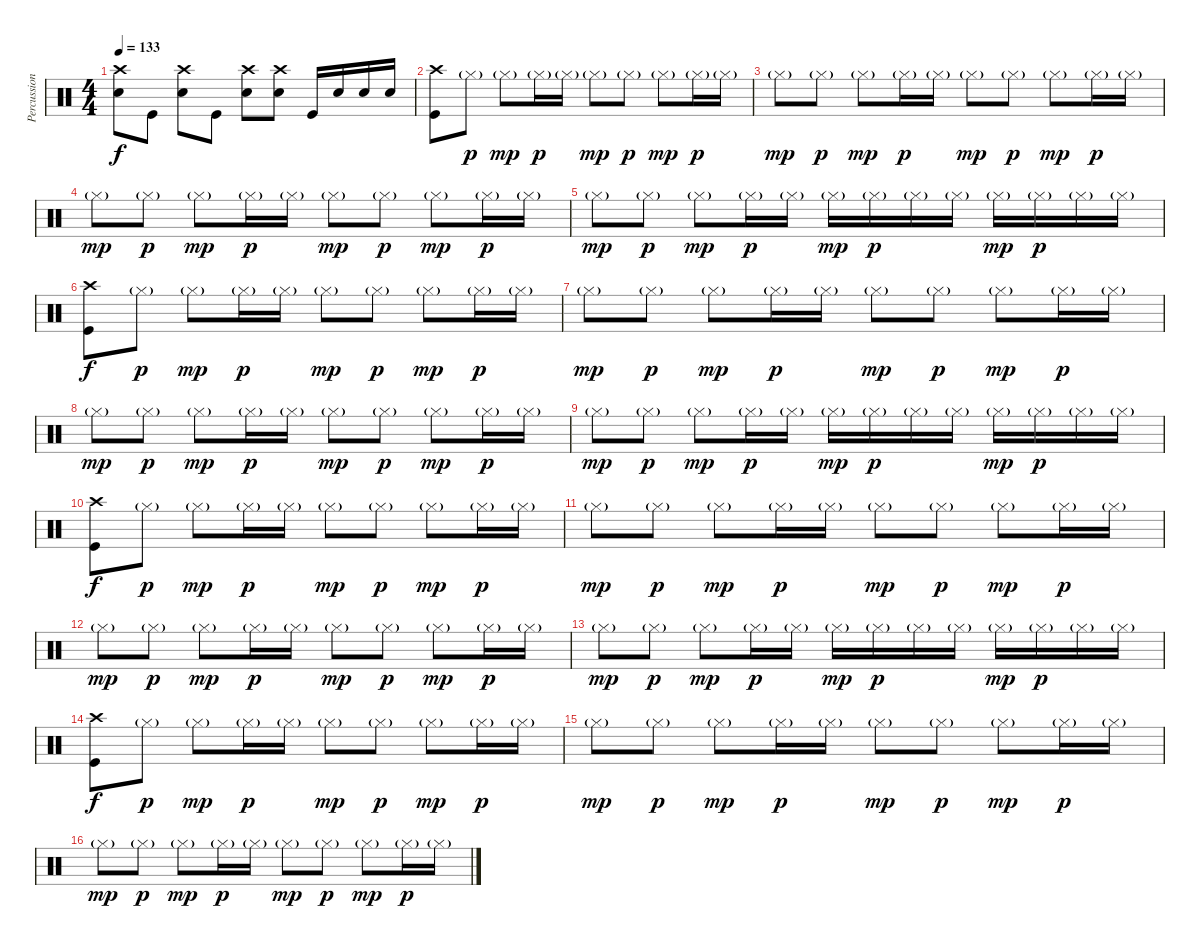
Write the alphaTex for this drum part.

\track ("Percussion" "Percussion") {instrument percussion}
\staff {score}
\articulation defaults
\ts (4 4)
\tempo 133
\clef neutral
\ks c
("Crash high (hit)" "Electric Snare (hit)").8{dy f} "Kick (hit)".8 ("Crash high (hit)" "Electric Snare (hit)").8 "Kick (hit)".8 ("Crash high (hit)" "Electric Snare (hit)").8 ("Crash high (hit)" "Electric Snare (hit)").8 "Kick (hit)".16 "Electric Snare (hit)".16 "Electric Snare (hit)".16 "Electric Snare (hit)".16 |
("Crash high (hit)" "Kick (hit)").8 "Hi-Hat (closed)"{g}.8{dy p} "Hi-Hat (closed)"{g}.8{dy mp} "Hi-Hat (closed)"{g}.16{dy p} "Hi-Hat (closed)"{g}.16 "Hi-Hat (closed)"{g}.8{dy mp} "Hi-Hat (closed)"{g}.8{dy p} "Hi-Hat (closed)"{g}.8{dy mp} "Hi-Hat (closed)"{g}.16{dy p} "Hi-Hat (closed)"{g}.16 |
"Hi-Hat (closed)"{g}.8{dy mp} "Hi-Hat (closed)"{g}.8{dy p} "Hi-Hat (closed)"{g}.8{dy mp} "Hi-Hat (closed)"{g}.16{dy p} "Hi-Hat (closed)"{g}.16 "Hi-Hat (closed)"{g}.8{dy mp} "Hi-Hat (closed)"{g}.8{dy p} "Hi-Hat (closed)"{g}.8{dy mp} "Hi-Hat (closed)"{g}.16{dy p} "Hi-Hat (closed)"{g}.16 |
"Hi-Hat (closed)"{g}.8{dy mp} "Hi-Hat (closed)"{g}.8{dy p} "Hi-Hat (closed)"{g}.8{dy mp} "Hi-Hat (closed)"{g}.16{dy p} "Hi-Hat (closed)"{g}.16 "Hi-Hat (closed)"{g}.8{dy mp} "Hi-Hat (closed)"{g}.8{dy p} "Hi-Hat (closed)"{g}.8{dy mp} "Hi-Hat (closed)"{g}.16{dy p} "Hi-Hat (closed)"{g}.16 |
"Hi-Hat (closed)"{g}.8{dy mp} "Hi-Hat (closed)"{g}.8{dy p} "Hi-Hat (closed)"{g}.8{dy mp} "Hi-Hat (closed)"{g}.16{dy p} "Hi-Hat (closed)"{g}.16 "Hi-Hat (closed)"{g}.16{dy mp} "Hi-Hat (closed)"{g}.16{dy p} "Hi-Hat (closed)"{g}.16 "Hi-Hat (closed)"{g}.16 "Hi-Hat (closed)"{g}.16{dy mp} "Hi-Hat (closed)"{g}.16{dy p} "Hi-Hat (closed)"{g}.16 "Hi-Hat (closed)"{g}.16 |
("Crash high (hit)" "Kick (hit)").8{dy f} "Hi-Hat (closed)"{g}.8{dy p} "Hi-Hat (closed)"{g}.8{dy mp} "Hi-Hat (closed)"{g}.16{dy p} "Hi-Hat (closed)"{g}.16 "Hi-Hat (closed)"{g}.8{dy mp} "Hi-Hat (closed)"{g}.8{dy p} "Hi-Hat (closed)"{g}.8{dy mp} "Hi-Hat (closed)"{g}.16{dy p} "Hi-Hat (closed)"{g}.16 |
"Hi-Hat (closed)"{g}.8{dy mp} "Hi-Hat (closed)"{g}.8{dy p} "Hi-Hat (closed)"{g}.8{dy mp} "Hi-Hat (closed)"{g}.16{dy p} "Hi-Hat (closed)"{g}.16 "Hi-Hat (closed)"{g}.8{dy mp} "Hi-Hat (closed)"{g}.8{dy p} "Hi-Hat (closed)"{g}.8{dy mp} "Hi-Hat (closed)"{g}.16{dy p} "Hi-Hat (closed)"{g}.16 |
"Hi-Hat (closed)"{g}.8{dy mp} "Hi-Hat (closed)"{g}.8{dy p} "Hi-Hat (closed)"{g}.8{dy mp} "Hi-Hat (closed)"{g}.16{dy p} "Hi-Hat (closed)"{g}.16 "Hi-Hat (closed)"{g}.8{dy mp} "Hi-Hat (closed)"{g}.8{dy p} "Hi-Hat (closed)"{g}.8{dy mp} "Hi-Hat (closed)"{g}.16{dy p} "Hi-Hat (closed)"{g}.16 |
"Hi-Hat (closed)"{g}.8{dy mp} "Hi-Hat (closed)"{g}.8{dy p} "Hi-Hat (closed)"{g}.8{dy mp} "Hi-Hat (closed)"{g}.16{dy p} "Hi-Hat (closed)"{g}.16 "Hi-Hat (closed)"{g}.16{dy mp} "Hi-Hat (closed)"{g}.16{dy p} "Hi-Hat (closed)"{g}.16 "Hi-Hat (closed)"{g}.16 "Hi-Hat (closed)"{g}.16{dy mp} "Hi-Hat (closed)"{g}.16{dy p} "Hi-Hat (closed)"{g}.16 "Hi-Hat (closed)"{g}.16 |
("Crash high (hit)" "Kick (hit)").8{dy f} "Hi-Hat (closed)"{g}.8{dy p} "Hi-Hat (closed)"{g}.8{dy mp} "Hi-Hat (closed)"{g}.16{dy p} "Hi-Hat (closed)"{g}.16 "Hi-Hat (closed)"{g}.8{dy mp} "Hi-Hat (closed)"{g}.8{dy p} "Hi-Hat (closed)"{g}.8{dy mp} "Hi-Hat (closed)"{g}.16{dy p} "Hi-Hat (closed)"{g}.16 |
"Hi-Hat (closed)"{g}.8{dy mp} "Hi-Hat (closed)"{g}.8{dy p} "Hi-Hat (closed)"{g}.8{dy mp} "Hi-Hat (closed)"{g}.16{dy p} "Hi-Hat (closed)"{g}.16 "Hi-Hat (closed)"{g}.8{dy mp} "Hi-Hat (closed)"{g}.8{dy p} "Hi-Hat (closed)"{g}.8{dy mp} "Hi-Hat (closed)"{g}.16{dy p} "Hi-Hat (closed)"{g}.16 |
"Hi-Hat (closed)"{g}.8{dy mp} "Hi-Hat (closed)"{g}.8{dy p} "Hi-Hat (closed)"{g}.8{dy mp} "Hi-Hat (closed)"{g}.16{dy p} "Hi-Hat (closed)"{g}.16 "Hi-Hat (closed)"{g}.8{dy mp} "Hi-Hat (closed)"{g}.8{dy p} "Hi-Hat (closed)"{g}.8{dy mp} "Hi-Hat (closed)"{g}.16{dy p} "Hi-Hat (closed)"{g}.16 |
"Hi-Hat (closed)"{g}.8{dy mp} "Hi-Hat (closed)"{g}.8{dy p} "Hi-Hat (closed)"{g}.8{dy mp} "Hi-Hat (closed)"{g}.16{dy p} "Hi-Hat (closed)"{g}.16 "Hi-Hat (closed)"{g}.16{dy mp} "Hi-Hat (closed)"{g}.16{dy p} "Hi-Hat (closed)"{g}.16 "Hi-Hat (closed)"{g}.16 "Hi-Hat (closed)"{g}.16{dy mp} "Hi-Hat (closed)"{g}.16{dy p} "Hi-Hat (closed)"{g}.16 "Hi-Hat (closed)"{g}.16 |
("Crash high (hit)" "Kick (hit)").8{dy f} "Hi-Hat (closed)"{g}.8{dy p} "Hi-Hat (closed)"{g}.8{dy mp} "Hi-Hat (closed)"{g}.16{dy p} "Hi-Hat (closed)"{g}.16 "Hi-Hat (closed)"{g}.8{dy mp} "Hi-Hat (closed)"{g}.8{dy p} "Hi-Hat (closed)"{g}.8{dy mp} "Hi-Hat (closed)"{g}.16{dy p} "Hi-Hat (closed)"{g}.16 |
"Hi-Hat (closed)"{g}.8{dy mp} "Hi-Hat (closed)"{g}.8{dy p} "Hi-Hat (closed)"{g}.8{dy mp} "Hi-Hat (closed)"{g}.16{dy p} "Hi-Hat (closed)"{g}.16 "Hi-Hat (closed)"{g}.8{dy mp} "Hi-Hat (closed)"{g}.8{dy p} "Hi-Hat (closed)"{g}.8{dy mp} "Hi-Hat (closed)"{g}.16{dy p} "Hi-Hat (closed)"{g}.16 |
"Hi-Hat (closed)"{g}.8{dy mp} "Hi-Hat (closed)"{g}.8{dy p} "Hi-Hat (closed)"{g}.8{dy mp} "Hi-Hat (closed)"{g}.16{dy p} "Hi-Hat (closed)"{g}.16 "Hi-Hat (closed)"{g}.8{dy mp} "Hi-Hat (closed)"{g}.8{dy p} "Hi-Hat (closed)"{g}.8{dy mp} "Hi-Hat (closed)"{g}.16{dy p} "Hi-Hat (closed)"{g}.16
